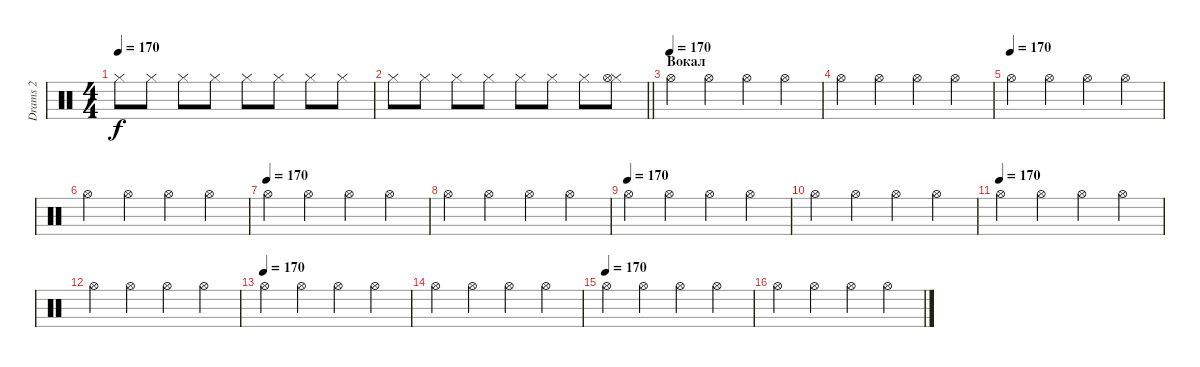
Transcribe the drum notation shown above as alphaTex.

\track ("Drams 2" "Drams 2") {instrument percussion}
\staff {score}
\articulation defaults
\ts (4 4)
\tempo 170
\clef neutral
\ks c "Hi-Hat (closed)".8{dy f} "Hi-Hat (closed)".8 "Hi-Hat (closed)".8 "Hi-Hat (closed)".8 "Hi-Hat (closed)".8 "Hi-Hat (closed)".8 "Hi-Hat (closed)".8 "Hi-Hat (closed)".8
|
\barLineRight lightlight "Hi-Hat (closed)".8 "Hi-Hat (closed)".8 "Hi-Hat (closed)".8 "Hi-Hat (closed)".8 "Hi-Hat (closed)".8 "Hi-Hat (closed)".8 "Hi-Hat (closed)".8
("Hi-Hat (closed)" "Hi-Hat (open)").8 |
\section ("" "Вокал")
\tempo (170)
"Hi-Hat (open)".4 "Hi-Hat (open)".4 "Hi-Hat (open)".4 "Hi-Hat (open)".4 |
"Hi-Hat (open)".4 "Hi-Hat (open)".4 "Hi-Hat (open)".4 "Hi-Hat (open)".4 |
\tempo (170)
"Hi-Hat (open)".4 "Hi-Hat (open)".4 "Hi-Hat (open)".4 "Hi-Hat (open)".4 |
"Hi-Hat (open)".4 "Hi-Hat (open)".4 "Hi-Hat (open)".4 "Hi-Hat (open)".4 |
\tempo (170)
"Hi-Hat (open)".4 "Hi-Hat (open)".4 "Hi-Hat (open)".4 "Hi-Hat (open)".4 |
"Hi-Hat (open)".4 "Hi-Hat (open)".4 "Hi-Hat (open)".4 "Hi-Hat (open)".4 |
\tempo (170)
"Hi-Hat (open)".4 "Hi-Hat (open)".4 "Hi-Hat (open)".4 "Hi-Hat (open)".4 |
"Hi-Hat (open)".4 "Hi-Hat (open)".4 "Hi-Hat (open)".4 "Hi-Hat (open)".4 |
\tempo (170)
"Hi-Hat (open)".4 "Hi-Hat (open)".4 "Hi-Hat (open)".4 "Hi-Hat (open)".4 |
"Hi-Hat (open)".4 "Hi-Hat (open)".4 "Hi-Hat (open)".4 "Hi-Hat (open)".4 |
\tempo (170)
"Hi-Hat (open)".4 "Hi-Hat (open)".4 "Hi-Hat (open)".4 "Hi-Hat (open)".4 |
"Hi-Hat (open)".4 "Hi-Hat (open)".4 "Hi-Hat (open)".4 "Hi-Hat (open)".4 |
\tempo (170)
"Hi-Hat (open)".4 "Hi-Hat (open)".4 "Hi-Hat (open)".4 "Hi-Hat (open)".4 |
"Hi-Hat (open)".4 "Hi-Hat (open)".4 "Hi-Hat (open)".4 "Hi-Hat (open)".4
